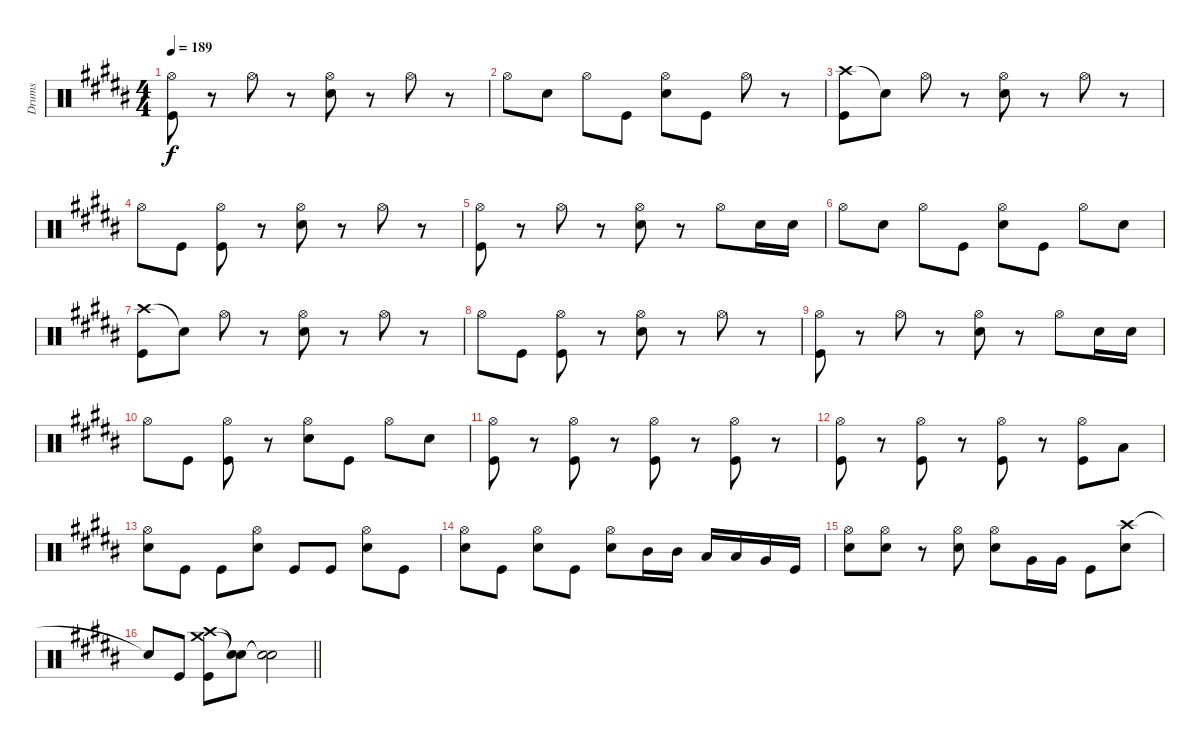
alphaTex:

\track ("Drums" "Drums") {instrument percussion}
\staff {score}
\articulation defaults
\ts (4 4)
\tempo 189
\clef neutral
\ks b
("Hi-Hat (open)" "Kick (hit)").8{dy f} r.8 "Hi-Hat (open)".8 r.8 ("Hi-Hat (open)" "Snare (hit) 2").8 r.8 "Hi-Hat (open)".8 r.8 |
"Hi-Hat (open)".8 "Snare (hit) 2".8 "Hi-Hat (open)".8 "Kick (hit)".8 ("Hi-Hat (open)" "Snare (hit) 2").8 "Kick (hit)".8 "Hi-Hat (open)".8 r.8 |
("Crash high (hit)" "Kick (hit)").8 "Snare (hit)"{t}.8 "Hi-Hat (open)".8 r.8 ("Hi-Hat (open)" "Snare (hit) 2").8 r.8 "Hi-Hat (open)".8 r.8 |
"Hi-Hat (open)".8 "Kick (hit)".8 ("Hi-Hat (open)" "Kick (hit)").8 r.8 ("Hi-Hat (open)" "Snare (hit) 2").8 r.8 "Hi-Hat (open)".8 r.8 |
("Hi-Hat (open)" "Kick (hit)").8 r.8 "Hi-Hat (open)".8 r.8 ("Hi-Hat (open)" "Snare (hit) 2").8 r.8 "Hi-Hat (open)".8 "Snare (hit) 2".16 "Snare (hit) 2".16 |
"Hi-Hat (open)".8 "Snare (hit) 2".8 "Hi-Hat (open)".8 "Kick (hit)".8 ("Hi-Hat (open)" "Snare (hit) 2").8 "Kick (hit)".8 "Hi-Hat (open)".8 "Snare (hit) 2".8 |
("Crash high (hit)" "Kick (hit)").8 "Snare (hit)"{t}.8 "Hi-Hat (open)".8 r.8 ("Hi-Hat (open)" "Snare (hit) 2").8 r.8 "Hi-Hat (open)".8 r.8 |
"Hi-Hat (open)".8 "Kick (hit)".8 ("Hi-Hat (open)" "Kick (hit)").8 r.8 ("Hi-Hat (open)" "Snare (hit) 2").8 r.8 "Hi-Hat (open)".8 r.8 |
("Hi-Hat (open)" "Kick (hit)").8 r.8 "Hi-Hat (open)".8 r.8 ("Hi-Hat (open)" "Snare (hit) 2").8 r.8 "Hi-Hat (open)".8 "Snare (hit) 2".16 "Snare (hit) 2".16 |
"Hi-Hat (open)".8 "Kick (hit)".8 ("Hi-Hat (open)" "Kick (hit)").8 r.8 ("Hi-Hat (open)" "Snare (hit) 2").8 "Kick (hit)".8 "Hi-Hat (open)".8 "Snare (hit) 2".8 |
("Hi-Hat (open)" "Kick (hit)").8 r.8 ("Hi-Hat (open)" "Kick (hit)").8 r.8 ("Hi-Hat (open)" "Kick (hit)").8 r.8 ("Hi-Hat (open)" "Kick (hit)").8 r.8 |
("Hi-Hat (open)" "Kick (hit)").8 r.8 ("Hi-Hat (open)" "Kick (hit)").8 r.8 ("Hi-Hat (open)" "Kick (hit)").8 r.8 ("Hi-Hat (open)" "Kick (hit)").8 "Low Tom (hit)".8 |
("Hi-Hat (open)" "Snare (hit) 2").8 "Kick (hit)".8 "Kick (hit)".8 ("Hi-Hat (open)" "Snare (hit) 2").8 "Kick (hit)".8 "Kick (hit)".8 ("Hi-Hat (open)" "Snare (hit) 2").8 "Kick (hit)".8 |
("Hi-Hat (open)" "Snare (hit) 2").8 "Kick (hit)".8 ("Hi-Hat (open)" "Snare (hit) 2").8 "Kick (hit)".8 ("Hi-Hat (open)" "Snare (hit) 2").8 "Mid Tom (hit)".16 "Mid Tom (hit)".16 "Low Tom (hit)".16 "Low Tom (hit)".16 "Very Low Tom (hit)".16 "Kick (hit)".16 |
("Hi-Hat (open)" "Snare (hit) 2").8 ("Hi-Hat (open)" "Snare (hit) 2").8 r.8 ("Hi-Hat (open)" "Snare (hit) 2").8 ("Hi-Hat (open)" "Snare (hit) 2").8 "Very Low Tom (hit)".16 "Very Low Tom (hit)".16 "Kick (hit)".8 ("Crash high (hit)" "Snare (hit) 2").8 |
\barLineRight lightlight "Snare (hit)"{t}.8 "Kick (hit)".8
("Crash high (hit)" "Crash medium (hit)" "Kick (hit)").8 ("Snare (hit)"{t} "Snare (hit)"{t}).8 ("Snare (hit)"{t} "Snare (hit)"{t}).2
